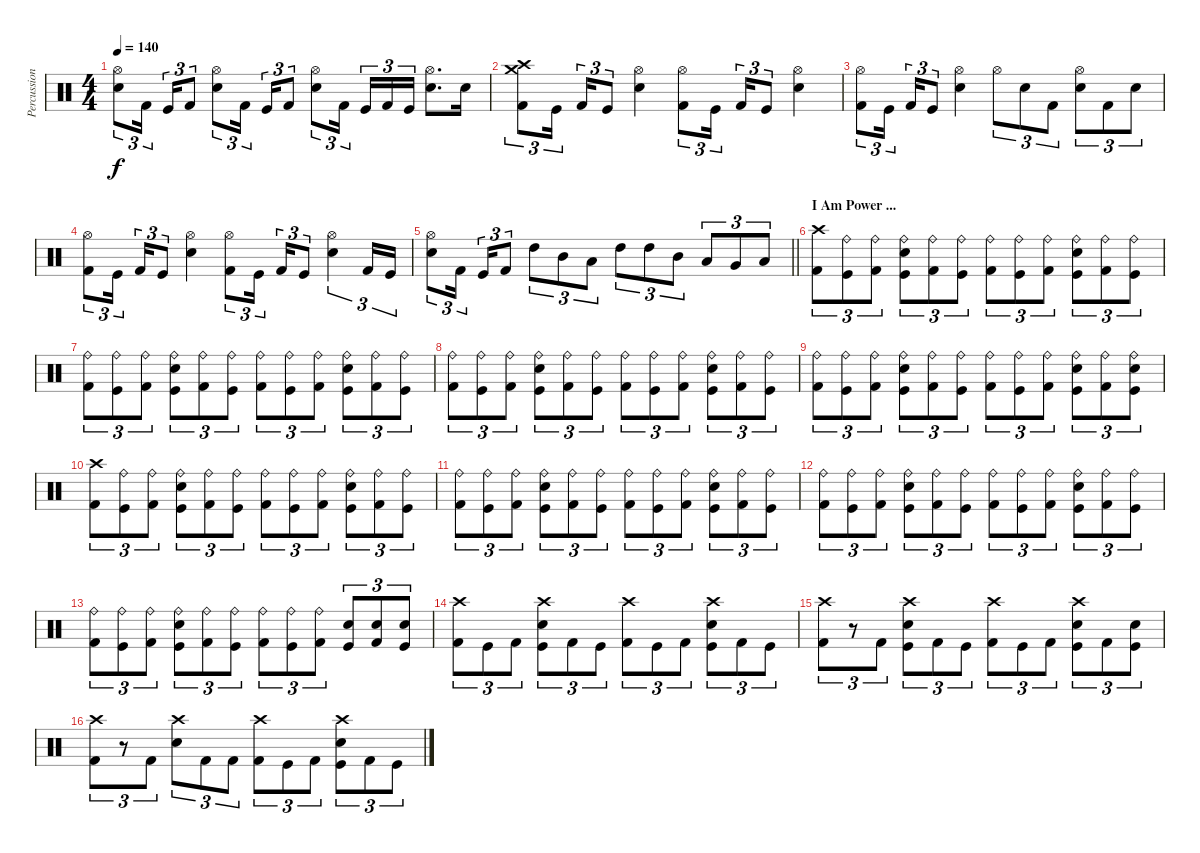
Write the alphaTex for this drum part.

\track ("Percussion" "Percussion") {instrument percussion}
\staff {score}
\articulation defaults
\ts (4 4)
\tempo 140
\clef neutral
\ks c
("Hi-Hat (open)" "Snare (hit) 2").8{tu (3 2) dy f} "Kick (hit) 2".16{tu (3 2) beam splitsecondary} "Kick (hit)".16{tu (3 2)} "Kick (hit) 2".8{tu (3 2)} ("Hi-Hat (open)" "Snare (hit) 2").8{tu (3 2)} "Kick (hit) 2".16{tu (3 2) beam splitsecondary} "Kick (hit)".16{tu (3 2)} "Kick (hit) 2".8{tu (3 2)} ("Hi-Hat (open)" "Snare (hit) 2").8{tu (3 2)} "Kick (hit) 2".16{tu (3 2) beam splitsecondary} "Kick (hit)".16{tu (3 2)} "Kick (hit) 2".16{tu (3 2)} "Kick (hit)".16{tu (3 2)} ("Hi-Hat (open)" "Snare (hit) 2").8{d} "Snare (hit) 2".16 |
("Crash medium (hit)" "Crash high (hit)" "Kick (hit) 2").8{tu (3 2)} "Kick (hit)".16{tu (3 2) beam splitsecondary} "Kick (hit) 2".16{tu (3 2)} "Kick (hit)".8{tu (3 2)} ("Hi-Hat (open)" "Snare (hit) 2").4 ("Hi-Hat (open)" "Kick (hit) 2").8{tu (3 2)} "Kick (hit)".16{tu (3 2) beam splitsecondary} "Kick (hit) 2".16{tu (3 2)} "Kick (hit)".8{tu (3 2)} ("Hi-Hat (open)" "Snare (hit) 2").4 |
("Hi-Hat (open)" "Kick (hit) 2").8{tu (3 2)} "Kick (hit)".16{tu (3 2) beam splitsecondary} "Kick (hit) 2".16{tu (3 2)} "Kick (hit)".8{tu (3 2)} ("Hi-Hat (open)" "Snare (hit) 2").4 "Hi-Hat (open)".8{tu (3 2)} "Snare (hit) 2".8{tu (3 2)} "Kick (hit) 2".8{tu (3 2)} ("Hi-Hat (open)" "Snare (hit) 2").8{tu (3 2)} "Kick (hit) 2".8{tu (3 2)} "Snare (hit) 2".8{tu (3 2)} |
("Hi-Hat (open)" "Kick (hit) 2").8{tu (3 2)} "Kick (hit)".16{tu (3 2) beam splitsecondary} "Kick (hit) 2".16{tu (3 2)} "Kick (hit)".8{tu (3 2)} ("Hi-Hat (open)" "Snare (hit) 2").4 ("Hi-Hat (open)" "Kick (hit) 2").8{tu (3 2)} "Kick (hit)".16{tu (3 2) beam splitsecondary} "Kick (hit) 2".16{tu (3 2)} "Kick (hit)".8{tu (3 2)} ("Hi-Hat (open)" "Snare (hit) 2").4{tu (3 2)} "Kick (hit) 2".16{tu (3 2)} "Kick (hit)".16{tu (3 2)} |
\barLineRight lightlight
("Hi-Hat (open)" "Snare (hit) 2").8{tu (3 2)} "Kick (hit) 2".16{tu (3 2) beam splitsecondary} "Kick (hit)".16{tu (3 2)} "Kick (hit) 2".8{tu (3 2)} "High Tom (hit)".8{tu (3 2)} "Mid Tom (hit)".8{tu (3 2)} "Low Tom (hit)".8{tu (3 2)} "High Tom (hit)".8{tu (3 2)} "High Tom (hit)".8{tu (3 2)} "Mid Tom (hit)".8{tu (3 2)} "Low Tom (hit)".8{tu (3 2)} "Very Low Tom (hit)".8{tu (3 2)} "Low Floor Tom (hit)".8{tu (3 2)} |
\section ("" "I Am Power ...")
("Crash high (hit)" "Kick (hit) 2").8{tu (3 2)} ("Ride (bell)" "Kick (hit)").8{tu (3 2)} ("Ride (bell)" "Kick (hit) 2").8{tu (3 2)} ("Ride (bell)" "Snare (hit) 2" "Kick (hit)").8{tu (3 2)} ("Ride (bell)" "Kick (hit) 2").8{tu (3 2)} ("Ride (bell)" "Kick (hit)").8{tu (3 2)} ("Ride (bell)" "Kick (hit) 2").8{tu (3 2)} ("Ride (bell)" "Kick (hit)").8{tu (3 2)} ("Ride (bell)" "Kick (hit) 2").8{tu (3 2)} ("Ride (bell)" "Snare (hit) 2" "Kick (hit)").8{tu (3 2)} ("Ride (bell)" "Kick (hit) 2").8{tu (3 2)} ("Ride (bell)" "Kick (hit)").8{tu (3 2)} |
("Ride (bell)" "Kick (hit) 2").8{tu (3 2)} ("Ride (bell)" "Kick (hit)").8{tu (3 2)} ("Ride (bell)" "Kick (hit) 2").8{tu (3 2)} ("Ride (bell)" "Snare (hit) 2" "Kick (hit)").8{tu (3 2)} ("Ride (bell)" "Kick (hit) 2").8{tu (3 2)} ("Ride (bell)" "Kick (hit)").8{tu (3 2)} ("Ride (bell)" "Kick (hit) 2").8{tu (3 2)} ("Ride (bell)" "Kick (hit)").8{tu (3 2)} ("Ride (bell)" "Kick (hit) 2").8{tu (3 2)} ("Ride (bell)" "Snare (hit) 2" "Kick (hit)").8{tu (3 2)} ("Ride (bell)" "Kick (hit) 2").8{tu (3 2)} ("Ride (bell)" "Kick (hit)").8{tu (3 2)} |
("Ride (bell)" "Kick (hit) 2").8{tu (3 2)} ("Ride (bell)" "Kick (hit)").8{tu (3 2)} ("Ride (bell)" "Kick (hit) 2").8{tu (3 2)} ("Ride (bell)" "Snare (hit) 2" "Kick (hit)").8{tu (3 2)} ("Ride (bell)" "Kick (hit) 2").8{tu (3 2)} ("Ride (bell)" "Kick (hit)").8{tu (3 2)} ("Ride (bell)" "Kick (hit) 2").8{tu (3 2)} ("Ride (bell)" "Kick (hit)").8{tu (3 2)} ("Ride (bell)" "Kick (hit) 2").8{tu (3 2)} ("Ride (bell)" "Snare (hit) 2" "Kick (hit)").8{tu (3 2)} ("Ride (bell)" "Kick (hit) 2").8{tu (3 2)} ("Ride (bell)" "Kick (hit)").8{tu (3 2)} |
("Ride (bell)" "Kick (hit) 2").8{tu (3 2)} ("Ride (bell)" "Kick (hit)").8{tu (3 2)} ("Ride (bell)" "Kick (hit) 2").8{tu (3 2)} ("Ride (bell)" "Snare (hit) 2" "Kick (hit)").8{tu (3 2)} ("Ride (bell)" "Kick (hit) 2").8{tu (3 2)} ("Ride (bell)" "Kick (hit)").8{tu (3 2)} ("Ride (bell)" "Kick (hit) 2").8{tu (3 2)} ("Ride (bell)" "Kick (hit)").8{tu (3 2)} ("Ride (bell)" "Kick (hit) 2").8{tu (3 2)} ("Ride (bell)" "Snare (hit) 2" "Kick (hit)").8{tu (3 2)} ("Ride (bell)" "Kick (hit) 2").8{tu (3 2)} ("Ride (bell)" "Snare (hit) 2" "Kick (hit)").8{tu (3 2)} |
("Crash high (hit)" "Kick (hit) 2").8{tu (3 2)} ("Ride (bell)" "Kick (hit)").8{tu (3 2)} ("Ride (bell)" "Kick (hit) 2").8{tu (3 2)} ("Ride (bell)" "Snare (hit) 2" "Kick (hit)").8{tu (3 2)} ("Ride (bell)" "Kick (hit) 2").8{tu (3 2)} ("Ride (bell)" "Kick (hit)").8{tu (3 2)} ("Ride (bell)" "Kick (hit) 2").8{tu (3 2)} ("Ride (bell)" "Kick (hit)").8{tu (3 2)} ("Ride (bell)" "Kick (hit) 2").8{tu (3 2)} ("Ride (bell)" "Snare (hit) 2" "Kick (hit)").8{tu (3 2)} ("Ride (bell)" "Kick (hit) 2").8{tu (3 2)} ("Ride (bell)" "Kick (hit)").8{tu (3 2)} |
("Ride (bell)" "Kick (hit) 2").8{tu (3 2)} ("Ride (bell)" "Kick (hit)").8{tu (3 2)} ("Ride (bell)" "Kick (hit) 2").8{tu (3 2)} ("Ride (bell)" "Snare (hit) 2" "Kick (hit)").8{tu (3 2)} ("Ride (bell)" "Kick (hit) 2").8{tu (3 2)} ("Ride (bell)" "Kick (hit)").8{tu (3 2)} ("Ride (bell)" "Kick (hit) 2").8{tu (3 2)} ("Ride (bell)" "Kick (hit)").8{tu (3 2)} ("Ride (bell)" "Kick (hit) 2").8{tu (3 2)} ("Ride (bell)" "Snare (hit) 2" "Kick (hit)").8{tu (3 2)} ("Ride (bell)" "Kick (hit) 2").8{tu (3 2)} ("Ride (bell)" "Kick (hit)").8{tu (3 2)} |
("Ride (bell)" "Kick (hit) 2").8{tu (3 2)} ("Ride (bell)" "Kick (hit)").8{tu (3 2)} ("Ride (bell)" "Kick (hit) 2").8{tu (3 2)} ("Ride (bell)" "Snare (hit) 2" "Kick (hit)").8{tu (3 2)} ("Ride (bell)" "Kick (hit) 2").8{tu (3 2)} ("Ride (bell)" "Kick (hit)").8{tu (3 2)} ("Ride (bell)" "Kick (hit) 2").8{tu (3 2)} ("Ride (bell)" "Kick (hit)").8{tu (3 2)} ("Ride (bell)" "Kick (hit) 2").8{tu (3 2)} ("Ride (bell)" "Snare (hit) 2" "Kick (hit)").8{tu (3 2)} ("Ride (bell)" "Kick (hit) 2").8{tu (3 2)} ("Ride (bell)" "Kick (hit)").8{tu (3 2)} |
("Ride (bell)" "Kick (hit) 2").8{tu (3 2)} ("Ride (bell)" "Kick (hit)").8{tu (3 2)} ("Ride (bell)" "Kick (hit) 2").8{tu (3 2)} ("Ride (bell)" "Snare (hit) 2" "Kick (hit)").8{tu (3 2)} ("Ride (bell)" "Kick (hit) 2").8{tu (3 2)} ("Ride (bell)" "Kick (hit)").8{tu (3 2)} ("Ride (bell)" "Kick (hit) 2").8{tu (3 2)} ("Ride (bell)" "Kick (hit)").8{tu (3 2)} ("Ride (bell)" "Kick (hit) 2").8{tu (3 2)} ("Snare (hit) 2" "Kick (hit)").8{tu (3 2)} ("Snare (hit) 2" "Kick (hit) 2").8{tu (3 2)} ("Snare (hit) 2" "Kick (hit)").8{tu (3 2)} |
("Crash high (hit)" "Kick (hit) 2").8{tu (3 2)} "Kick (hit)".8{tu (3 2)} "Kick (hit) 2".8{tu (3 2)} ("Crash high (hit)" "Snare (hit) 2" "Kick (hit)").8{tu (3 2)} "Kick (hit) 2".8{tu (3 2)} "Kick (hit)".8{tu (3 2)} ("Crash high (hit)" "Kick (hit) 2").8{tu (3 2)} "Kick (hit)".8{tu (3 2)} "Kick (hit) 2".8{tu (3 2)} ("Crash high (hit)" "Snare (hit) 2" "Kick (hit)").8{tu (3 2)} "Kick (hit) 2".8{tu (3 2)} "Kick (hit)".8{tu (3 2)} |
("Crash high (hit)" "Kick (hit) 2").8{tu (3 2)} r.8{tu (3 2)} "Kick (hit) 2".8{tu (3 2)} ("Crash high (hit)" "Snare (hit) 2" "Kick (hit)").8{tu (3 2)} "Kick (hit) 2".8{tu (3 2)} "Kick (hit)".8{tu (3 2)} ("Crash high (hit)" "Kick (hit) 2").8{tu (3 2)} "Kick (hit)".8{tu (3 2)} "Kick (hit) 2".8{tu (3 2)} ("Crash high (hit)" "Snare (hit) 2" "Kick (hit)").8{tu (3 2)} "Kick (hit) 2".8{tu (3 2)} ("Snare (hit) 2" "Kick (hit)").8{tu (3 2)} |
("Crash high (hit)" "Kick (hit) 2").8{tu (3 2)} r.8{tu (3 2)} "Kick (hit) 2".8{tu (3 2)} ("Crash high (hit)" "Snare (hit) 2").8{tu (3 2)} "Kick (hit) 2".8{tu (3 2)} "Kick (hit) 2".8{tu (3 2)} ("Crash high (hit)" "Kick (hit) 2").8{tu (3 2)} "Kick (hit)".8{tu (3 2)} "Kick (hit) 2".8{tu (3 2)} ("Crash high (hit)" "Snare (hit) 2" "Kick (hit)").8{tu (3 2)} "Kick (hit) 2".8{tu (3 2)} "Kick (hit)".8{tu (3 2)}
